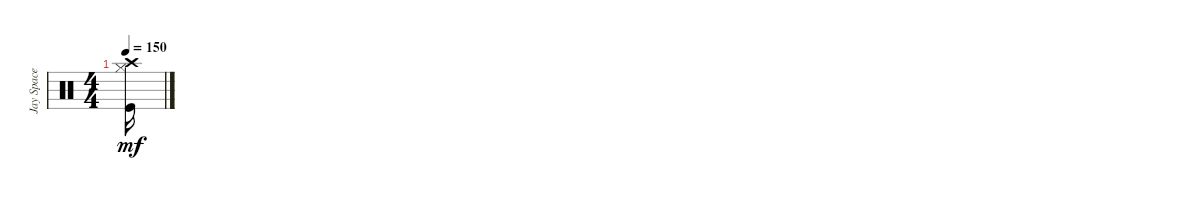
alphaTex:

\track ("Jay Space - Drums" "Jay Space ") {instrument percussion}
\staff {score}
\articulation defaults
\ts (4 4)
\tempo 150
\clef neutral
\ks c
("Hi-Hat (closed)" "Kick (hit)" "Crash high (hit)").16{dy mf}
